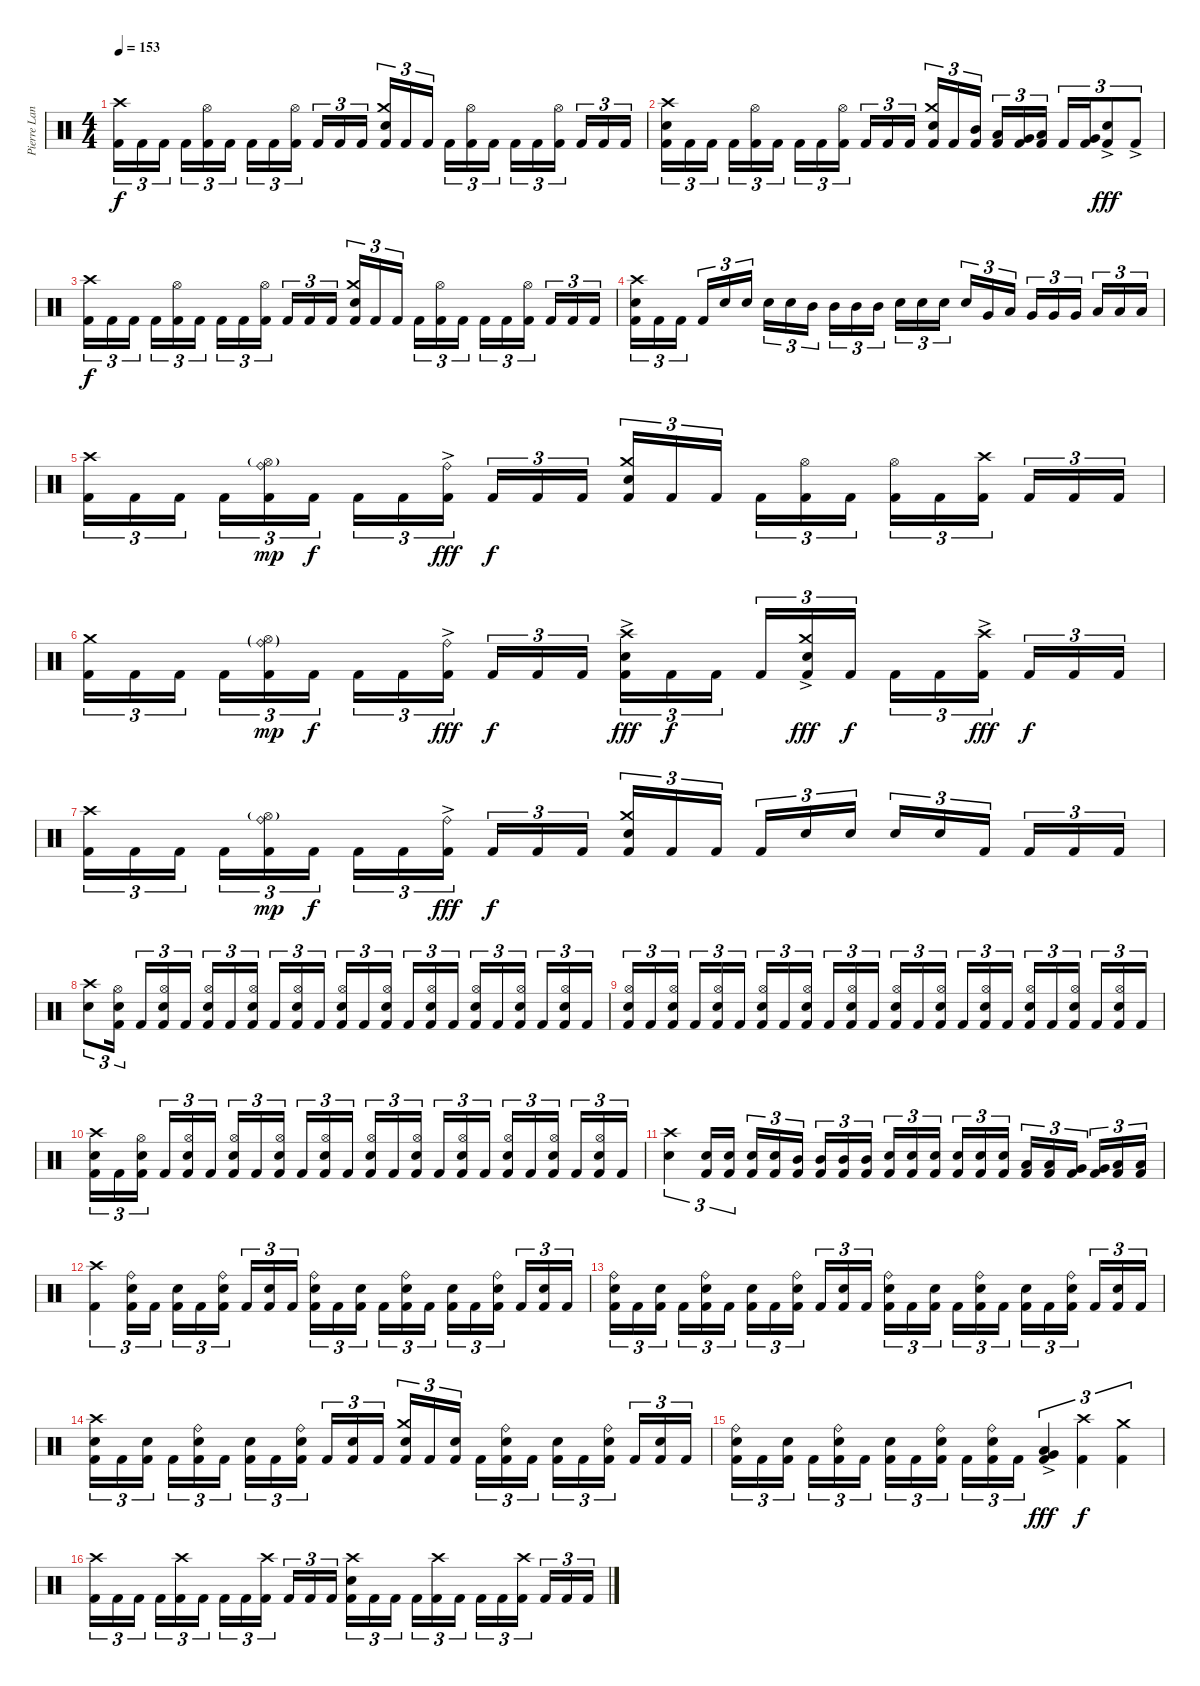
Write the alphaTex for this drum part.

\track ("Pierre Langlois (Drums)" "Pierre Lan") {instrument percussion}
\staff {score}
\articulation defaults
\ts (4 4)
\tempo 153
\clef neutral
\ks c
("Crash high (hit)" "Kick (hit) 2").16{tu (3 2) dy f} "Kick (hit) 2".16{tu (3 2)} "Kick (hit) 2".16{tu (3 2)} "Kick (hit) 2".16{tu (3 2)} ("Hi-Hat (open)" "Kick (hit) 2").16{tu (3 2)} "Kick (hit) 2".16{tu (3 2)} "Kick (hit) 2".16{tu (3 2)} "Kick (hit) 2".16{tu (3 2)} ("Hi-Hat (open)" "Kick (hit) 2").16{tu (3 2)} "Kick (hit) 2".16{tu (3 2)} "Kick (hit) 2".16{tu (3 2)} "Kick (hit) 2".16{tu (3 2)} ("Crash medium (hit)" "Snare (hit) 2" "Kick (hit) 2").16{tu (3 2)} "Kick (hit) 2".16{tu (3 2)} "Kick (hit) 2".16{tu (3 2)} "Kick (hit) 2".16{tu (3 2)} ("Hi-Hat (open)" "Kick (hit) 2").16{tu (3 2)} "Kick (hit) 2".16{tu (3 2)} "Kick (hit) 2".16{tu (3 2)} "Kick (hit) 2".16{tu (3 2)} ("Hi-Hat (open)" "Kick (hit) 2").16{tu (3 2)} "Kick (hit) 2".16{tu (3 2)} "Kick (hit) 2".16{tu (3 2)} "Kick (hit) 2".16{tu (3 2)} |
("Snare (hit) 2" "Crash high (hit)" "Kick (hit) 2").16{tu (3 2)} "Kick (hit) 2".16{tu (3 2)} "Kick (hit) 2".16{tu (3 2)} "Kick (hit) 2".16{tu (3 2)} ("Hi-Hat (open)" "Kick (hit) 2").16{tu (3 2)} "Kick (hit) 2".16{tu (3 2)} "Kick (hit) 2".16{tu (3 2)} "Kick (hit) 2".16{tu (3 2)} ("Hi-Hat (open)" "Kick (hit) 2").16{tu (3 2)} "Kick (hit) 2".16{tu (3 2)} "Kick (hit) 2".16{tu (3 2)} "Kick (hit) 2".16{tu (3 2)} ("Crash medium (hit)" "Snare (hit) 2" "Kick (hit) 2").16{tu (3 2)} "Kick (hit) 2".16{tu (3 2)} ("Mid Tom (hit)" "Kick (hit) 2").16{tu (3 2)} ("Low Tom (hit)" "Kick (hit) 2").16{tu (3 2)} ("Very Low Tom (hit)" "Kick (hit) 2").16{tu (3 2)} ("Low Floor Tom (hit)" "Kick (hit) 2").16{tu (3 2)} "Kick (hit) 2".16{tu (3 2)} ("Very Low Tom (hit)" "Kick (hit) 2").16{tu (3 2)} ("Snare (hit) 2" "Kick (hit) 2"{ac}).8{tu (3 2) dy fff} "Kick (hit) 2"{ac}.8{tu (3 2)} |
("Crash high (hit)" "Kick (hit) 2").16{tu (3 2) dy f} "Kick (hit) 2".16{tu (3 2)} "Kick (hit) 2".16{tu (3 2)} "Kick (hit) 2".16{tu (3 2)} ("Hi-Hat (open)" "Kick (hit) 2").16{tu (3 2)} "Kick (hit) 2".16{tu (3 2)} "Kick (hit) 2".16{tu (3 2)} "Kick (hit) 2".16{tu (3 2)} ("Hi-Hat (open)" "Kick (hit) 2").16{tu (3 2)} "Kick (hit) 2".16{tu (3 2)} "Kick (hit) 2".16{tu (3 2)} "Kick (hit) 2".16{tu (3 2)} ("Crash medium (hit)" "Snare (hit) 2" "Kick (hit) 2").16{tu (3 2)} "Kick (hit) 2".16{tu (3 2)} "Kick (hit) 2".16{tu (3 2)} "Kick (hit) 2".16{tu (3 2)} ("Hi-Hat (open)" "Kick (hit) 2").16{tu (3 2)} "Kick (hit) 2".16{tu (3 2)} "Kick (hit) 2".16{tu (3 2)} "Kick (hit) 2".16{tu (3 2)} ("Hi-Hat (open)" "Kick (hit) 2").16{tu (3 2)} "Kick (hit) 2".16{tu (3 2)} "Kick (hit) 2".16{tu (3 2)} "Kick (hit) 2".16{tu (3 2)} |
("Snare (hit) 2" "Crash high (hit)" "Kick (hit) 2").16{tu (3 2)} "Kick (hit) 2".16{tu (3 2)} "Kick (hit) 2".16{tu (3 2)} "Kick (hit) 2".16{tu (3 2)} "Snare (hit) 2".16{tu (3 2)} "Snare (hit) 2".16{tu (3 2)} "Snare (hit) 2".16{tu (3 2)} "Snare (hit) 2".16{tu (3 2)} "Mid Tom (hit)".16{tu (3 2)} "Mid Tom (hit)".16{tu (3 2)} "Mid Tom (hit)".16{tu (3 2)} "Mid Tom (hit)".16{tu (3 2)} "Snare (hit) 2".16{tu (3 2)} "Snare (hit) 2".16{tu (3 2)} "Snare (hit) 2".16{tu (3 2)} "Snare (hit) 2".16{tu (3 2)} "Very Low Tom (hit)".16{tu (3 2)} "Low Floor Tom (hit)".16{tu (3 2)} "Very Low Tom (hit)".16{tu (3 2)} "Very Low Tom (hit)".16{tu (3 2)} "Very Low Tom (hit)".16{tu (3 2)} "Low Floor Tom (hit)".16{tu (3 2)} "Low Floor Tom (hit)".16{tu (3 2)} "Low Floor Tom (hit)".16{tu (3 2)} |
("Crash high (hit)" "Kick (hit) 2").16{tu (3 2)} "Kick (hit) 2".16{tu (3 2)} "Kick (hit) 2".16{tu (3 2)} "Kick (hit) 2".16{tu (3 2)} ("Ride (bell)" "Hi-Hat (open)"{g} "Kick (hit) 2").16{tu (3 2) dy mp} "Kick (hit) 2".16{tu (3 2) dy f} "Kick (hit) 2".16{tu (3 2)} "Kick (hit) 2".16{tu (3 2)} ("Ride (bell)"{ac} "Kick (hit) 2").16{tu (3 2) dy fff} "Kick (hit) 2".16{tu (3 2) dy f} "Kick (hit) 2".16{tu (3 2)} "Kick (hit) 2".16{tu (3 2)} ("Crash medium (hit)" "Snare (hit) 2" "Kick (hit) 2").16{tu (3 2)} "Kick (hit) 2".16{tu (3 2)} "Kick (hit) 2".16{tu (3 2)} "Kick (hit) 2".16{tu (3 2)} ("Hi-Hat (open)" "Kick (hit) 2").16{tu (3 2)} "Kick (hit) 2".16{tu (3 2)} ("Hi-Hat (open)" "Kick (hit) 2").16{tu (3 2)} "Kick (hit) 2".16{tu (3 2)} ("Crash high (hit)" "Kick (hit) 2").16{tu (3 2)} "Kick (hit) 2".16{tu (3 2)} "Kick (hit) 2".16{tu (3 2)} "Kick (hit) 2".16{tu (3 2)} |
("Crash medium (hit)" "Kick (hit) 2").16{tu (3 2)} "Kick (hit) 2".16{tu (3 2)} "Kick (hit) 2".16{tu (3 2)} "Kick (hit) 2".16{tu (3 2)} ("Ride (bell)"{g} "Hi-Hat (open)"{g} "Kick (hit) 2").16{tu (3 2) dy mp} "Kick (hit) 2".16{tu (3 2) dy f} "Kick (hit) 2".16{tu (3 2)} "Kick (hit) 2".16{tu (3 2)} ("Ride (bell)"{ac} "Kick (hit) 2").16{tu (3 2) dy fff} "Kick (hit) 2".16{tu (3 2) dy f} "Kick (hit) 2".16{tu (3 2)} "Kick (hit) 2".16{tu (3 2)} ("Crash high (hit)"{ac} "Snare (hit) 2"{ac} "Kick (hit) 2").16{tu (3 2) dy fff} "Kick (hit) 2".16{tu (3 2) dy f} "Kick (hit) 2".16{tu (3 2)} "Kick (hit) 2".16{tu (3 2)} ("Crash medium (hit)"{ac} "Snare (hit) 2"{ac} "Kick (hit) 2").16{tu (3 2) dy fff} "Kick (hit) 2".16{tu (3 2) dy f} "Kick (hit) 2".16{tu (3 2)} "Kick (hit) 2".16{tu (3 2)} ("Crash high (hit)"{ac} "Kick (hit) 2").16{tu (3 2) dy fff} "Kick (hit) 2".16{tu (3 2) dy f} "Kick (hit) 2".16{tu (3 2)} "Kick (hit) 2".16{tu (3 2)} |
("Crash high (hit)" "Kick (hit) 2").16{tu (3 2)} "Kick (hit) 2".16{tu (3 2)} "Kick (hit) 2".16{tu (3 2)} "Kick (hit) 2".16{tu (3 2)} ("Ride (bell)" "Hi-Hat (open)"{g} "Kick (hit) 2").16{tu (3 2) dy mp} "Kick (hit) 2".16{tu (3 2) dy f} "Kick (hit) 2".16{tu (3 2)} "Kick (hit) 2".16{tu (3 2)} ("Ride (bell)"{ac} "Kick (hit) 2").16{tu (3 2) dy fff} "Kick (hit) 2".16{tu (3 2) dy f} "Kick (hit) 2".16{tu (3 2)} "Kick (hit) 2".16{tu (3 2)} ("Crash medium (hit)" "Snare (hit) 2" "Kick (hit) 2").16{tu (3 2)} "Kick (hit) 2".16{tu (3 2)} "Kick (hit) 2".16{tu (3 2)} "Kick (hit) 2".16{tu (3 2)} "Snare (hit) 2".16{tu (3 2)} "Snare (hit) 2".16{tu (3 2)} "Snare (hit) 2".16{tu (3 2)} "Snare (hit) 2".16{tu (3 2)} "Kick (hit) 2".16{tu (3 2)} "Kick (hit) 2".16{tu (3 2)} "Kick (hit) 2".16{tu (3 2)} "Kick (hit) 2".16{tu (3 2)} |
("Crash high (hit)" "Snare (hit) 2").8{tu (3 2)} ("Hi-Hat (open)" "Snare (hit) 2" "Kick (hit) 2").16{tu (3 2)} "Kick (hit) 2".16{tu (3 2)} ("Hi-Hat (open)" "Snare (hit) 2" "Kick (hit) 2").16{tu (3 2)} "Kick (hit) 2".16{tu (3 2)} ("Hi-Hat (open)" "Snare (hit) 2" "Kick (hit) 2").16{tu (3 2)} "Kick (hit) 2".16{tu (3 2)} ("Hi-Hat (open)" "Snare (hit) 2" "Kick (hit) 2").16{tu (3 2)} "Kick (hit) 2".16{tu (3 2)} ("Hi-Hat (open)" "Snare (hit) 2" "Kick (hit) 2").16{tu (3 2)} "Kick (hit) 2".16{tu (3 2)} ("Hi-Hat (open)" "Snare (hit) 2" "Kick (hit) 2").16{tu (3 2)} "Kick (hit) 2".16{tu (3 2)} ("Hi-Hat (open)" "Snare (hit) 2" "Kick (hit) 2").16{tu (3 2)} "Kick (hit) 2".16{tu (3 2)} ("Hi-Hat (open)" "Snare (hit) 2" "Kick (hit) 2").16{tu (3 2)} "Kick (hit) 2".16{tu (3 2)} ("Hi-Hat (open)" "Snare (hit) 2" "Kick (hit) 2").16{tu (3 2)} "Kick (hit) 2".16{tu (3 2)} ("Hi-Hat (open)" "Snare (hit) 2" "Kick (hit) 2").16{tu (3 2)} "Kick (hit) 2".16{tu (3 2)} ("Hi-Hat (open)" "Snare (hit) 2" "Kick (hit) 2").16{tu (3 2)} "Kick (hit) 2".16{tu (3 2)} |
("Hi-Hat (open)" "Snare (hit) 2" "Kick (hit) 2").16{tu (3 2)} "Kick (hit) 2".16{tu (3 2)} ("Hi-Hat (open)" "Snare (hit) 2" "Kick (hit) 2").16{tu (3 2)} "Kick (hit) 2".16{tu (3 2)} ("Hi-Hat (open)" "Snare (hit) 2" "Kick (hit) 2").16{tu (3 2)} "Kick (hit) 2".16{tu (3 2)} ("Hi-Hat (open)" "Snare (hit) 2" "Kick (hit) 2").16{tu (3 2)} "Kick (hit) 2".16{tu (3 2)} ("Hi-Hat (open)" "Snare (hit) 2" "Kick (hit) 2").16{tu (3 2)} "Kick (hit) 2".16{tu (3 2)} ("Hi-Hat (open)" "Snare (hit) 2" "Kick (hit) 2").16{tu (3 2)} "Kick (hit) 2".16{tu (3 2)} ("Hi-Hat (open)" "Snare (hit) 2" "Kick (hit) 2").16{tu (3 2)} "Kick (hit) 2".16{tu (3 2)} ("Hi-Hat (open)" "Snare (hit) 2" "Kick (hit) 2").16{tu (3 2)} "Kick (hit) 2".16{tu (3 2)} ("Hi-Hat (open)" "Snare (hit) 2" "Kick (hit) 2").16{tu (3 2)} "Kick (hit) 2".16{tu (3 2)} ("Hi-Hat (open)" "Snare (hit) 2" "Kick (hit) 2").16{tu (3 2)} "Kick (hit) 2".16{tu (3 2)} ("Hi-Hat (open)" "Snare (hit) 2" "Kick (hit) 2").16{tu (3 2)} "Kick (hit) 2".16{tu (3 2)} ("Hi-Hat (open)" "Snare (hit) 2" "Kick (hit) 2").16{tu (3 2)} "Kick (hit) 2".16{tu (3 2)} |
("Crash high (hit)" "Snare (hit) 2" "Kick (hit) 2").16{tu (3 2)} "Kick (hit) 2".16{tu (3 2)} ("Hi-Hat (open)" "Snare (hit) 2" "Kick (hit) 2").16{tu (3 2)} "Kick (hit) 2".16{tu (3 2)} ("Hi-Hat (open)" "Snare (hit) 2" "Kick (hit) 2").16{tu (3 2)} "Kick (hit) 2".16{tu (3 2)} ("Hi-Hat (open)" "Snare (hit) 2" "Kick (hit) 2").16{tu (3 2)} "Kick (hit) 2".16{tu (3 2)} ("Hi-Hat (open)" "Snare (hit) 2" "Kick (hit) 2").16{tu (3 2)} "Kick (hit) 2".16{tu (3 2)} ("Hi-Hat (open)" "Snare (hit) 2" "Kick (hit) 2").16{tu (3 2)} "Kick (hit) 2".16{tu (3 2)} ("Hi-Hat (open)" "Snare (hit) 2" "Kick (hit) 2").16{tu (3 2)} "Kick (hit) 2".16{tu (3 2)} ("Hi-Hat (open)" "Snare (hit) 2" "Kick (hit) 2").16{tu (3 2)} "Kick (hit) 2".16{tu (3 2)} ("Hi-Hat (open)" "Snare (hit) 2" "Kick (hit) 2").16{tu (3 2)} "Kick (hit) 2".16{tu (3 2)} ("Hi-Hat (open)" "Snare (hit) 2" "Kick (hit) 2").16{tu (3 2)} "Kick (hit) 2".16{tu (3 2)} ("Hi-Hat (open)" "Snare (hit) 2" "Kick (hit) 2").16{tu (3 2)} "Kick (hit) 2".16{tu (3 2)} ("Hi-Hat (open)" "Snare (hit) 2" "Kick (hit) 2").16{tu (3 2)} "Kick (hit) 2".16{tu (3 2)} |
("Crash high (hit)" "Snare (hit) 2").4{tu (3 2)} ("Kick (hit) 2" "Snare (hit) 2").16{tu (3 2)} ("Kick (hit) 2" "Snare (hit) 2").16{tu (3 2)} ("Kick (hit) 2" "Snare (hit) 2").16{tu (3 2)} ("Kick (hit) 2" "Snare (hit) 2").16{tu (3 2)} ("Mid Tom (hit)" "Kick (hit) 2").16{tu (3 2)} ("Mid Tom (hit)" "Kick (hit) 2").16{tu (3 2)} ("Mid Tom (hit)" "Kick (hit) 2").16{tu (3 2)} ("Mid Tom (hit)" "Kick (hit) 2").16{tu (3 2)} ("Kick (hit) 2" "Snare (hit) 2").16{tu (3 2)} ("Kick (hit) 2" "Snare (hit) 2").16{tu (3 2)} ("Kick (hit) 2" "Snare (hit) 2").16{tu (3 2)} ("Kick (hit) 2" "Snare (hit) 2").16{tu (3 2)} ("Kick (hit) 2" "Snare (hit) 2").16{tu (3 2)} ("Kick (hit) 2" "Snare (hit) 2").16{tu (3 2)} ("Kick (hit) 2" "Low Tom (hit)").16{tu (3 2)} ("Kick (hit) 2" "Low Tom (hit)").16{tu (3 2)} ("Kick (hit) 2" "Very Low Tom (hit)").16{tu (3 2)} ("Kick (hit) 2" "Very Low Tom (hit)").16{tu (3 2)} ("Kick (hit) 2" "Low Floor Tom (hit)").16{tu (3 2)} ("Kick (hit) 2" "Low Floor Tom (hit)").16{tu (3 2)} |
("Crash high (hit)" "Kick (hit) 2").4{tu (3 2)} ("Ride (bell)" "Snare (hit) 2" "Kick (hit) 2").16{tu (3 2)} "Kick (hit) 2".16{tu (3 2)} ("Snare (hit) 2" "Kick (hit) 2").16{tu (3 2)} "Kick (hit) 2".16{tu (3 2)} ("Ride (bell)" "Snare (hit) 2" "Kick (hit) 2").16{tu (3 2)} "Kick (hit) 2".16{tu (3 2)} ("Snare (hit) 2" "Kick (hit) 2").16{tu (3 2)} "Kick (hit) 2".16{tu (3 2)} ("Ride (bell)" "Snare (hit) 2" "Kick (hit) 2").16{tu (3 2)} "Kick (hit) 2".16{tu (3 2)} ("Snare (hit) 2" "Kick (hit) 2").16{tu (3 2)} "Kick (hit) 2".16{tu (3 2)} ("Ride (bell)" "Snare (hit) 2" "Kick (hit) 2").16{tu (3 2)} "Kick (hit) 2".16{tu (3 2)} ("Snare (hit) 2" "Kick (hit) 2").16{tu (3 2)} "Kick (hit) 2".16{tu (3 2)} ("Ride (bell)" "Snare (hit) 2" "Kick (hit) 2").16{tu (3 2)} "Kick (hit) 2".16{tu (3 2)} ("Snare (hit) 2" "Kick (hit) 2").16{tu (3 2)} "Kick (hit) 2".16{tu (3 2)} |
("Ride (bell)" "Snare (hit) 2" "Kick (hit) 2").16{tu (3 2)} "Kick (hit) 2".16{tu (3 2)} ("Snare (hit) 2" "Kick (hit) 2").16{tu (3 2)} "Kick (hit) 2".16{tu (3 2)} ("Ride (bell)" "Snare (hit) 2" "Kick (hit) 2").16{tu (3 2)} "Kick (hit) 2".16{tu (3 2)} ("Snare (hit) 2" "Kick (hit) 2").16{tu (3 2)} "Kick (hit) 2".16{tu (3 2)} ("Ride (bell)" "Snare (hit) 2" "Kick (hit) 2").16{tu (3 2)} "Kick (hit) 2".16{tu (3 2)} ("Snare (hit) 2" "Kick (hit) 2").16{tu (3 2)} "Kick (hit) 2".16{tu (3 2)} ("Ride (bell)" "Snare (hit) 2" "Kick (hit) 2").16{tu (3 2)} "Kick (hit) 2".16{tu (3 2)} ("Snare (hit) 2" "Kick (hit) 2").16{tu (3 2)} "Kick (hit) 2".16{tu (3 2)} ("Ride (bell)" "Snare (hit) 2" "Kick (hit) 2").16{tu (3 2)} "Kick (hit) 2".16{tu (3 2)} ("Snare (hit) 2" "Kick (hit) 2").16{tu (3 2)} "Kick (hit) 2".16{tu (3 2)} ("Ride (bell)" "Snare (hit) 2" "Kick (hit) 2").16{tu (3 2)} "Kick (hit) 2".16{tu (3 2)} ("Snare (hit) 2" "Kick (hit) 2").16{tu (3 2)} "Kick (hit) 2".16{tu (3 2)} |
("Crash high (hit)" "Snare (hit) 2" "Kick (hit) 2").16{tu (3 2)} "Kick (hit) 2".16{tu (3 2)} ("Snare (hit) 2" "Kick (hit) 2").16{tu (3 2)} "Kick (hit) 2".16{tu (3 2)} ("Ride (bell)" "Snare (hit) 2" "Kick (hit) 2").16{tu (3 2)} "Kick (hit) 2".16{tu (3 2)} ("Snare (hit) 2" "Kick (hit) 2").16{tu (3 2)} "Kick (hit) 2".16{tu (3 2)} ("Ride (bell)" "Snare (hit) 2" "Kick (hit) 2").16{tu (3 2)} "Kick (hit) 2".16{tu (3 2)} ("Snare (hit) 2" "Kick (hit) 2").16{tu (3 2)} "Kick (hit) 2".16{tu (3 2)} ("Crash medium (hit)" "Snare (hit) 2" "Kick (hit) 2").16{tu (3 2)} "Kick (hit) 2".16{tu (3 2)} ("Snare (hit) 2" "Kick (hit) 2").16{tu (3 2)} "Kick (hit) 2".16{tu (3 2)} ("Ride (bell)" "Snare (hit) 2" "Kick (hit) 2").16{tu (3 2)} "Kick (hit) 2".16{tu (3 2)} ("Snare (hit) 2" "Kick (hit) 2").16{tu (3 2)} "Kick (hit) 2".16{tu (3 2)} ("Ride (bell)" "Snare (hit) 2" "Kick (hit) 2").16{tu (3 2)} "Kick (hit) 2".16{tu (3 2)} ("Snare (hit) 2" "Kick (hit) 2").16{tu (3 2)} "Kick (hit) 2".16{tu (3 2)} |
("Ride (bell)" "Snare (hit) 2" "Kick (hit) 2").16{tu (3 2)} "Kick (hit) 2".16{tu (3 2)} ("Snare (hit) 2" "Kick (hit) 2").16{tu (3 2)} "Kick (hit) 2".16{tu (3 2)} ("Ride (bell)" "Snare (hit) 2" "Kick (hit) 2").16{tu (3 2)} "Kick (hit) 2".16{tu (3 2)} ("Snare (hit) 2" "Kick (hit) 2").16{tu (3 2)} "Kick (hit) 2".16{tu (3 2)} ("Ride (bell)" "Snare (hit) 2" "Kick (hit) 2").16{tu (3 2)} "Kick (hit) 2".16{tu (3 2)} ("Ride (bell)" "Snare (hit) 2" "Kick (hit) 2").16{tu (3 2)} "Kick (hit) 2".16{tu (3 2)} ("Low Floor Tom (hit)"{ac} "Very Low Tom (hit)"{ac} "Kick (hit) 2").4{tu (3 2) dy fff} ("Crash high (hit)" "Kick (hit) 2").4{tu (3 2) dy f} ("Crash medium (hit)" "Kick (hit) 2").4{tu (3 2)} |
("Crash high (hit)" "Kick (hit) 2").16{tu (3 2)} "Kick (hit) 2".16{tu (3 2)} "Kick (hit) 2".16{tu (3 2)} "Kick (hit) 2".16{tu (3 2)} ("Crash high (hit)" "Kick (hit) 2").16{tu (3 2)} "Kick (hit) 2".16{tu (3 2)} "Kick (hit) 2".16{tu (3 2)} "Kick (hit) 2".16{tu (3 2)} ("Crash high (hit)" "Kick (hit) 2").16{tu (3 2)} "Kick (hit) 2".16{tu (3 2)} "Kick (hit) 2".16{tu (3 2)} "Kick (hit) 2".16{tu (3 2)} ("Snare (hit) 2" "Crash high (hit)" "Kick (hit) 2").16{tu (3 2)} "Kick (hit) 2".16{tu (3 2)} "Kick (hit) 2".16{tu (3 2)} "Kick (hit) 2".16{tu (3 2)} ("Crash high (hit)" "Kick (hit) 2").16{tu (3 2)} "Kick (hit) 2".16{tu (3 2)} "Kick (hit) 2".16{tu (3 2)} "Kick (hit) 2".16{tu (3 2)} ("Crash high (hit)" "Kick (hit) 2").16{tu (3 2)} "Kick (hit) 2".16{tu (3 2)} "Kick (hit) 2".16{tu (3 2)} "Kick (hit) 2".16{tu (3 2)}
